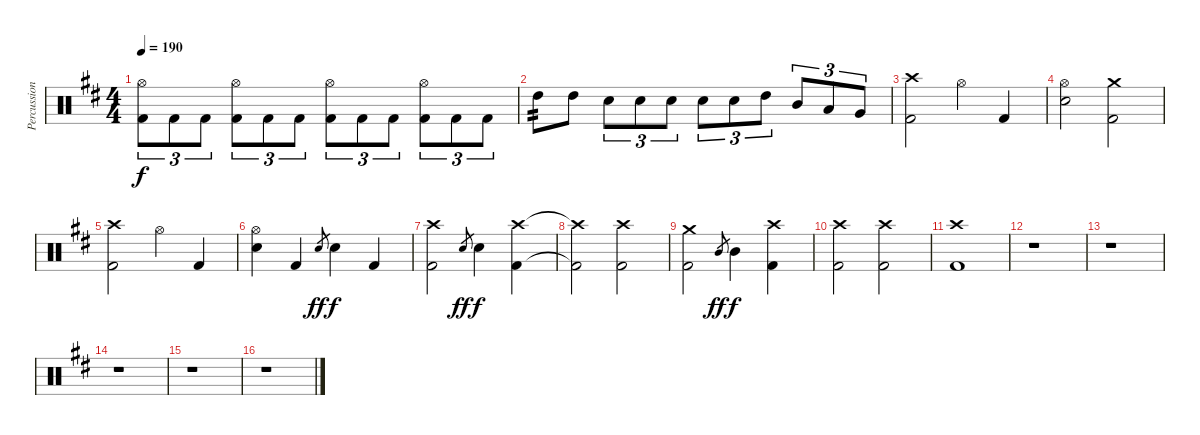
\track ("Percussion" "Percussion") {instrument percussion}
\staff {score}
\articulation defaults
\ts (4 4)
\tempo 190
\clef neutral
\ks d
("Kick (hit) 2" "Hi-Hat (open)").8{tu (3 2) dy f} "Kick (hit) 2".8{tu (3 2)} "Kick (hit) 2".8{tu (3 2)} ("Kick (hit) 2" "Hi-Hat (open)").8{tu (3 2)} "Kick (hit) 2".8{tu (3 2)} "Kick (hit) 2".8{tu (3 2)} ("Hi-Hat (open)" "Kick (hit) 2").8{tu (3 2)} "Kick (hit) 2".8{tu (3 2)} "Kick (hit) 2".8{tu (3 2)} ("Kick (hit) 2" "Hi-Hat (open)").8{tu (3 2)} "Kick (hit) 2".8{tu (3 2)} "Kick (hit) 2".8{tu (3 2)} |
"High Tom (hit)".8{tp 2} "High Tom (hit)".8 "Electric Snare (hit)".8{tu (3 2)} "Electric Snare (hit)".8{tu (3 2)} "Electric Snare (hit)".8{tu (3 2)} "Electric Snare (hit)".8{tu (3 2)} "Electric Snare (hit)".8{tu (3 2)} "High Tom (hit)".8{tu (3 2)} "Mid Tom (hit)".8{tu (3 2)} "Low Tom (hit)".8{tu (3 2)} "Very Low Tom (hit)".8{tu (3 2)} |
("Crash high (hit)" "Kick (hit) 2").2 "Hi-Hat (open)".4 "Kick (hit) 2".4 |
("Hi-Hat (open)" "Electric Snare (hit)").2 ("Crash medium (hit)" "Kick (hit) 2").2 |
("Crash high (hit)" "Kick (hit) 2").2 "Hi-Hat (open)".4 "Kick (hit) 2".4 |
("Hi-Hat (open)" "Electric Snare (hit)").4 "Kick (hit) 2".4 "Electric Snare (hit)".8{gr dy ff} "Electric Snare (hit)".4{dy f} "Kick (hit) 2".4 |
("Crash high (hit)" "Kick (hit) 2").2 "Electric Snare (hit)".8{gr dy ff} "Electric Snare (hit)".4{dy f} ("Crash high (hit)" "Kick (hit) 2").4 |
("Crash high (hit)"{t} "Kick (hit) 2"{t}).2 ("Crash high (hit)" "Kick (hit) 2").2 |
("Kick (hit) 2" "Crash medium (hit)").2 "Mid Tom (hit)".8{gr dy ff} "Mid Tom (hit)".4{dy f} ("Crash high (hit)" "Kick (hit) 2").4 |
("Crash high (hit)" "Kick (hit) 2").2 ("Crash high (hit)" "Kick (hit) 2").2 |
("Crash high (hit)" "Kick (hit) 2").1 |
r.1 |
r.1 |
r.1 |
r.1 |
r.1
